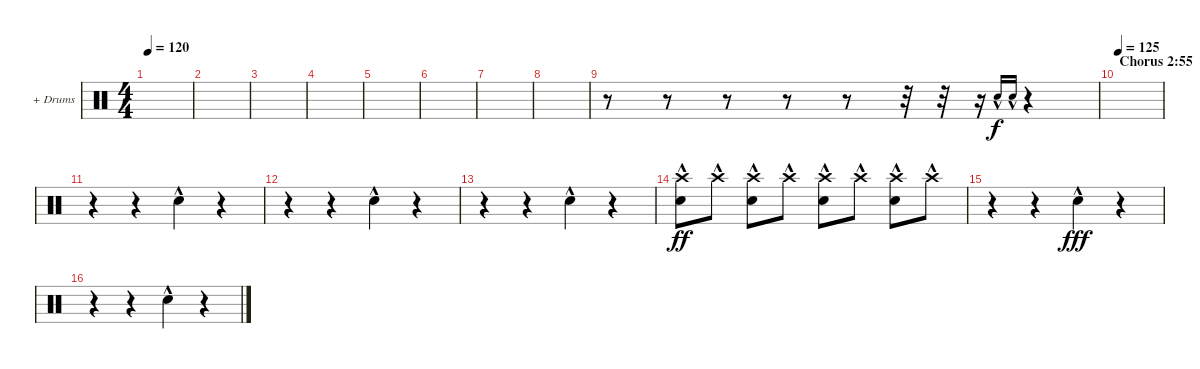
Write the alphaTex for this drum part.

\defaultSystemsLayout 4
\bracketExtendMode groupsimilarinstruments
\firstSystemTrackNameOrientation horizontal
\otherSystemsTrackNameOrientation horizontal
\track ("+ Drums" "+ Drums") {instrument percussion}
\staff {score}
\articulation defaults
\ts (4 4)
\tempo 120
\clef neutral
\ks c
|
|
|
|
|
|
|
|
r.8 r.8 r.8 r.8 r.8 r.32 r.32 r.16 "Snare (hit) 2"{hac}.16{gr onbeat} "Snare (hit) 2"{hac}.16{gr onbeat} r.4 |
\section ("" "Chorus 2:55")
\tempo 125
|
r.4 r.4 "Snare (hit) 2"{hac}.4 r.4 |
r.4 r.4 "Snare (hit) 2"{hac}.4 r.4 |
r.4 r.4 "Snare (hit) 2"{hac}.4 r.4 |
("Crash high (hit)"{hac} "Snare (hit) 2"{hac}).8{dy ff} "Crash high (hit)"{hac}.8 ("Crash high (hit)"{hac} "Snare (hit) 2"{hac}).8 "Crash high (hit)"{hac}.8 ("Crash high (hit)"{hac} "Snare (hit) 2"{hac}).8 "Crash high (hit)"{hac}.8 ("Crash high (hit)"{hac} "Snare (hit) 2"{hac}).8 "Crash high (hit)"{hac}.8 |
r.4 r.4 "Snare (hit) 2"{hac}.4{dy fff} r.4 |
r.4 r.4 "Snare (hit) 2"{hac}.4 r.4
